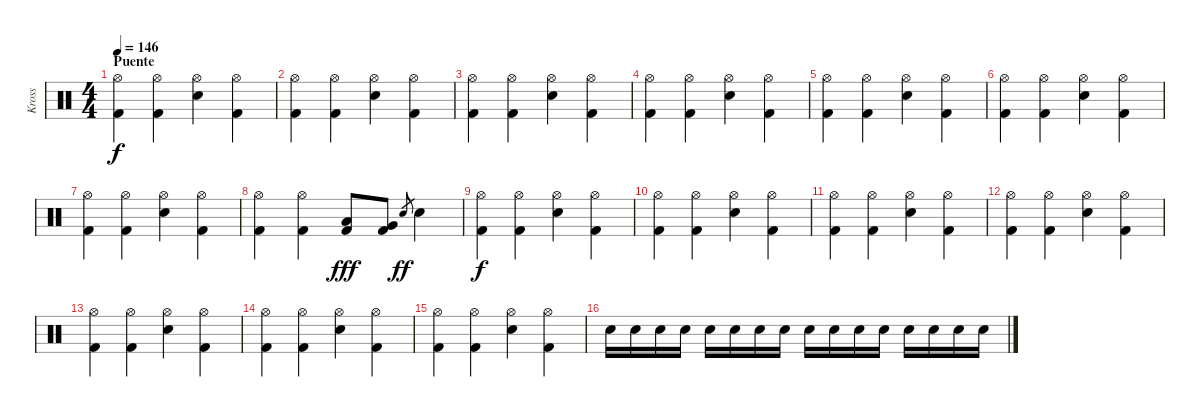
\track ("Kross" "Kross") {instrument percussion}
\staff {score}
\articulation defaults
\ts (4 4)
\section ("" "Puente")
\tempo 146
\clef neutral
\ks c
("Hi-Hat (open)" "Kick (hit) 2").4{dy f} ("Hi-Hat (open)" "Kick (hit) 2").4 ("Hi-Hat (open)" "Snare (hit) 2").4 ("Hi-Hat (open)" "Kick (hit) 2").4 |
("Hi-Hat (open)" "Kick (hit) 2").4 ("Hi-Hat (open)" "Kick (hit) 2").4 ("Hi-Hat (open)" "Snare (hit) 2").4 ("Hi-Hat (open)" "Kick (hit) 2").4 |
("Hi-Hat (open)" "Kick (hit) 2").4 ("Hi-Hat (open)" "Kick (hit) 2").4 ("Hi-Hat (open)" "Snare (hit) 2").4 ("Hi-Hat (open)" "Kick (hit) 2").4 |
("Hi-Hat (open)" "Kick (hit) 2").4 ("Hi-Hat (open)" "Kick (hit) 2").4 ("Hi-Hat (open)" "Snare (hit) 2").4 ("Hi-Hat (open)" "Kick (hit) 2").4 |
("Hi-Hat (open)" "Kick (hit) 2").4 ("Hi-Hat (open)" "Kick (hit) 2").4 ("Hi-Hat (open)" "Snare (hit) 2").4 ("Hi-Hat (open)" "Kick (hit) 2").4 |
("Hi-Hat (open)" "Kick (hit) 2").4 ("Hi-Hat (open)" "Kick (hit) 2").4 ("Hi-Hat (open)" "Snare (hit) 2").4 ("Hi-Hat (open)" "Kick (hit) 2").4 |
("Hi-Hat (open)" "Kick (hit) 2").4 ("Hi-Hat (open)" "Kick (hit) 2").4 ("Hi-Hat (open)" "Snare (hit) 2").4 ("Hi-Hat (open)" "Kick (hit) 2").4 |
("Hi-Hat (open)" "Kick (hit) 2").4 ("Hi-Hat (open)" "Kick (hit) 2").4 ("Low Tom (hit)" "Kick (hit) 2").8{dy fff} ("Very Low Tom (hit)" "Kick (hit) 2").8 "Snare (hit) 2".8{gr dy ff} "Snare (hit) 2".4 |
("Hi-Hat (open)" "Kick (hit) 2").4{dy f} ("Hi-Hat (open)" "Kick (hit) 2").4 ("Hi-Hat (open)" "Snare (hit) 2").4 ("Hi-Hat (open)" "Kick (hit) 2").4 |
("Hi-Hat (open)" "Kick (hit) 2").4 ("Hi-Hat (open)" "Kick (hit) 2").4 ("Hi-Hat (open)" "Snare (hit) 2").4 ("Hi-Hat (open)" "Kick (hit) 2").4 |
("Hi-Hat (open)" "Kick (hit) 2").4 ("Hi-Hat (open)" "Kick (hit) 2").4 ("Hi-Hat (open)" "Snare (hit) 2").4 ("Hi-Hat (open)" "Kick (hit) 2").4 |
("Hi-Hat (open)" "Kick (hit) 2").4 ("Hi-Hat (open)" "Kick (hit) 2").4 ("Hi-Hat (open)" "Snare (hit) 2").4 ("Hi-Hat (open)" "Kick (hit) 2").4 |
("Hi-Hat (open)" "Kick (hit) 2").4 ("Hi-Hat (open)" "Kick (hit) 2").4 ("Hi-Hat (open)" "Snare (hit) 2").4 ("Hi-Hat (open)" "Kick (hit) 2").4 |
("Hi-Hat (open)" "Kick (hit) 2").4 ("Hi-Hat (open)" "Kick (hit) 2").4 ("Hi-Hat (open)" "Snare (hit) 2").4 ("Hi-Hat (open)" "Kick (hit) 2").4 |
("Hi-Hat (open)" "Kick (hit) 2").4 ("Hi-Hat (open)" "Kick (hit) 2").4 ("Hi-Hat (open)" "Snare (hit) 2").4 ("Hi-Hat (open)" "Kick (hit) 2").4 |
"Snare (hit) 2".16 "Snare (hit) 2".16 "Snare (hit) 2".16 "Snare (hit) 2".16 "Snare (hit) 2".16 "Snare (hit) 2".16 "Snare (hit) 2".16 "Snare (hit) 2".16 "Snare (hit) 2".16 "Snare (hit) 2".16 "Snare (hit) 2".16 "Snare (hit) 2".16 "Snare (hit) 2".16 "Snare (hit) 2".16 "Snare (hit) 2".16 "Snare (hit) 2".16
